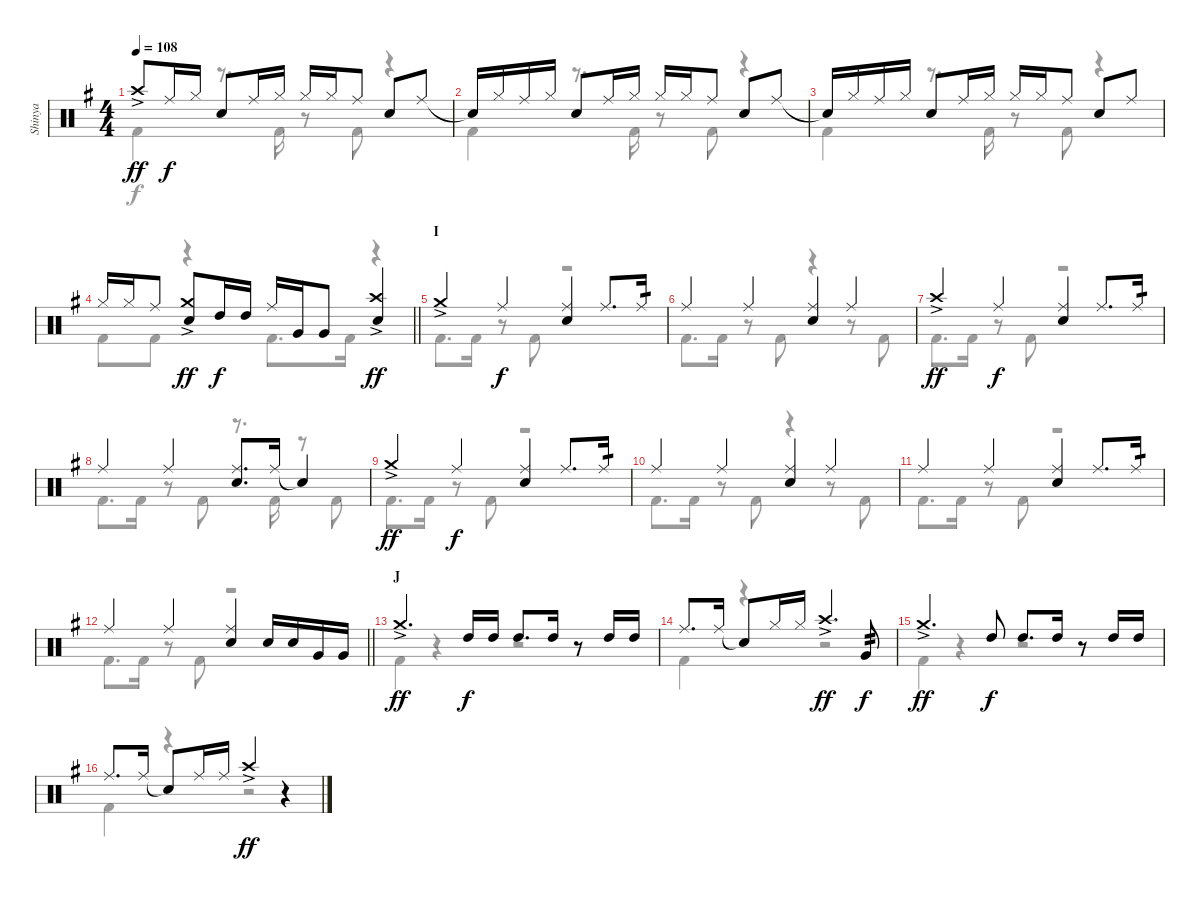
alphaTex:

\track ("Shinya" "Shinya") {instrument percussion}
\staff {score}
\articulation defaults
\voice
\ts (4 4)
\tempo 108
\clef neutral
\ks eminor "Crash high (hit)"{ac}.8{dy ff} "Ride (middle)".16{dy f} "Hi-Hat (closed)".16 "Snare (hit) 2".8 "Ride (middle)".16 "Hi-Hat (closed)".16 "Hi-Hat (closed)".16 "Hi-Hat (closed)".16 "Ride (middle)".8 "Snare (hit) 2".8 "Ride (middle)".8
|
"Snare (hit)"{t}.16 "Hi-Hat (closed)".16 "Ride (middle)".16 "Hi-Hat (closed)".16 "Snare (hit) 2".8 "Ride (middle)".16 "Hi-Hat (closed)".16 "Hi-Hat (closed)".16 "Hi-Hat (closed)".16 "Ride (middle)".8 "Snare (hit) 2".8 "Ride (middle)".8 |
"Snare (hit)"{t}.16 "Hi-Hat (closed)".16 "Ride (middle)".16 "Hi-Hat (closed)".16 "Snare (hit) 2".8 "Ride (middle)".16 "Hi-Hat (closed)".16 "Hi-Hat (closed)".16 "Hi-Hat (closed)".16 "Ride (middle)".8 "Snare (hit) 2".8 "Ride (middle)".8 |
\barLineRight lightlight "Hi-Hat (closed)".16 "Hi-Hat (closed)".16 "Ride (middle)".8
("Crash medium (hit)"{ac} "Snare (hit) 2").8{dy ff} "High Tom (hit)".16{dy f} "High Tom (hit)".16 "Ride (middle)".16 "Very Low Tom (hit)".16 "Very Low Tom (hit)".8 ("Crash high (hit)"{ac} "Snare (hit) 2").4{dy ff} |
\section ("" "I")
"Crash medium (hit)"{ac}.4 "Ride (middle)".4{dy f} ("Ride (middle)" "Snare (hit) 2").4 "Ride (middle)".8{d} "Ride (middle)".16{tp 1} |
"Ride (middle)".4 "Ride (middle)".4 ("Ride (middle)" "Snare (hit) 2").4 "Ride (middle)".4 |
"Crash high (hit)"{ac}.4{dy ff} "Ride (middle)".4{dy f} ("Ride (middle)" "Snare (hit) 2").4 "Ride (middle)".8{d} "Ride (middle)".16{tp 1} |
"Ride (middle)".4 "Ride (middle)".4 ("Ride (middle)" "Snare (hit) 2").8{d} "Ride (middle)".16 "Snare (hit)"{t}.4 |
"Crash medium (hit)"{ac}.4{dy ff} "Ride (middle)".4{dy f} ("Ride (middle)" "Snare (hit) 2").4 "Ride (middle)".8{d} "Ride (middle)".16{tp 1} |
"Ride (middle)".4 "Ride (middle)".4 ("Ride (middle)" "Snare (hit) 2").4 "Ride (middle)".4 |
"Ride (middle)".4 "Ride (middle)".4 ("Ride (middle)" "Snare (hit) 2").4 "Ride (middle)".8{d} "Ride (middle)".16{tp 1} |
\barLineRight lightlight "Ride (middle)".4 "Ride (middle)".4
("Ride (middle)" "Snare (hit) 2").4 "Snare (hit) 2".16 "Snare (hit) 2".16 "Very Low Tom (hit)".16 "Very Low Tom (hit)".16 |
\section ("" "J")
"Crash medium (hit)"{ac}.4{d dy ff} "High Tom (hit)".16{dy f} "High Tom (hit)".16 "High Tom (hit)".8{d} "High Tom (hit)".16 r.8 "High Tom (hit)".16 "High Tom (hit)".16 |
"Ride (middle)".8{d} "Ride (middle)".16 "Snare (hit)"{t}.8 "Hi-Hat (closed)".16 "Hi-Hat (closed)".16 "Crash high (hit)"{ac}.4{d dy ff} "Very Low Tom (hit)".8{tp 2 dy f} |
"Crash medium (hit)"{ac}.4{d dy ff} "High Tom (hit)".8{dy f} "High Tom (hit)".8{d} "High Tom (hit)".16 r.8 "High Tom (hit)".16 "High Tom (hit)".16 |
"Ride (middle)".8{d} "Ride (middle)".16 "Snare (hit)"{t}.8 "Ride (middle)".16 "Ride (middle)".16 "Crash high (hit)"{ac}.4{dy ff} r.4
\voice
\clef neutral
\ottava regular
\simile none
\ks eminor "Kick (hit) 2".4{dy f}
r.8{d} "Kick (hit) 2".16 r.8 "Kick (hit) 2".8 r.4 |
"Kick (hit) 2".4 r.8{d} "Kick (hit) 2".16 r.8 "Kick (hit) 2".8 r.4 |
"Kick (hit) 2".4 r.8{d} "Kick (hit) 2".16 r.8 "Kick (hit) 2".8 r.4 |
\barLineRight lightlight "Kick (hit) 2".8 "Kick (hit) 2".8
r.4 "Kick (hit) 2".8{d} "Kick (hit) 2".16 r.4 |
"Kick (hit) 2".8{d} "Kick (hit) 2".16 r.8 "Kick (hit) 2".8 r.2 |
"Kick (hit) 2".8{d} "Kick (hit) 2".16 r.8 "Kick (hit) 2".8 r.4 r.8 "Kick (hit) 2".8 |
"Kick (hit) 2".8{d} "Kick (hit) 2".16 r.8 "Kick (hit) 2".8 r.2 |
"Kick (hit) 2".8{d} "Kick (hit) 2".16 r.8 "Kick (hit) 2".8 r.8{d} "Kick (hit) 2".16 r.8 "Kick (hit) 2".8 |
"Kick (hit) 2".8{d} "Kick (hit) 2".16 r.8 "Kick (hit) 2".8 r.2 |
"Kick (hit) 2".8{d} "Kick (hit) 2".16 r.8 "Kick (hit) 2".8 r.4 r.8 "Kick (hit) 2".8 |
"Kick (hit) 2".8{d} "Kick (hit) 2".16 r.8 "Kick (hit) 2".8 r.2 |
\barLineRight lightlight "Kick (hit) 2".8{d} "Kick (hit) 2".16
r.8 "Kick (hit) 2".8 r.2 |
"Kick (hit) 2".4 r.4 r.2 |
"Kick (hit) 2".4 r.4 r.2 |
"Kick (hit) 2".4 r.4 r.2 |
"Kick (hit) 2".4 r.4 r.2
